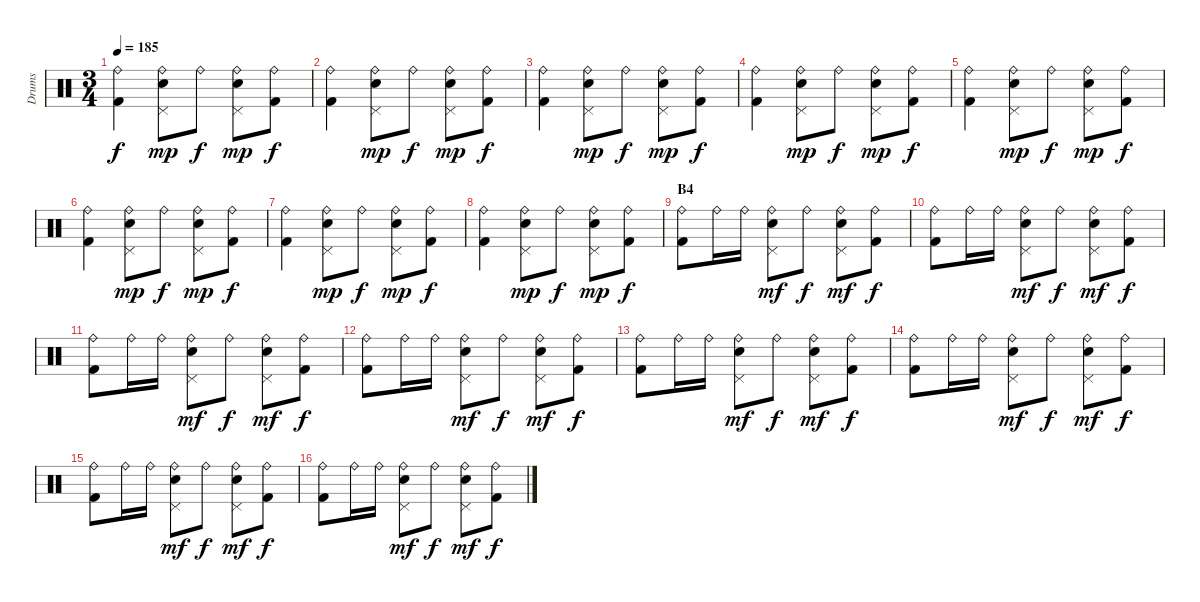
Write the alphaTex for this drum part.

\track ("Drums" "Drums") {instrument percussion}
\staff {score}
\articulation defaults
\ts (3 4)
\tempo 185
\clef neutral
\ks c
("Ride (bell)" "Kick (hit) 2").4{dy f} ("Ride (bell)" "Pedal Hi-Hat (hit)" "Electric Snare (hit)").8{dy mp} "Ride (bell)".8{dy f} ("Ride (bell)" "Pedal Hi-Hat (hit)" "Electric Snare (hit)").8{dy mp} ("Ride (bell)" "Kick (hit) 2").8{dy f} |
("Ride (bell)" "Kick (hit) 2").4 ("Ride (bell)" "Pedal Hi-Hat (hit)" "Electric Snare (hit)").8{dy mp} "Ride (bell)".8{dy f} ("Ride (bell)" "Pedal Hi-Hat (hit)" "Electric Snare (hit)").8{dy mp} ("Ride (bell)" "Kick (hit) 2").8{dy f} |
("Ride (bell)" "Kick (hit) 2").4 ("Ride (bell)" "Pedal Hi-Hat (hit)" "Electric Snare (hit)").8{dy mp} "Ride (bell)".8{dy f} ("Ride (bell)" "Pedal Hi-Hat (hit)" "Electric Snare (hit)").8{dy mp} ("Ride (bell)" "Kick (hit) 2").8{dy f} |
("Ride (bell)" "Kick (hit) 2").4 ("Ride (bell)" "Pedal Hi-Hat (hit)" "Electric Snare (hit)").8{dy mp} "Ride (bell)".8{dy f} ("Ride (bell)" "Pedal Hi-Hat (hit)" "Electric Snare (hit)").8{dy mp} ("Ride (bell)" "Kick (hit) 2").8{dy f} |
("Ride (bell)" "Kick (hit) 2").4 ("Ride (bell)" "Pedal Hi-Hat (hit)" "Electric Snare (hit)").8{dy mp} "Ride (bell)".8{dy f} ("Ride (bell)" "Pedal Hi-Hat (hit)" "Electric Snare (hit)").8{dy mp} ("Ride (bell)" "Kick (hit) 2").8{dy f} |
("Ride (bell)" "Kick (hit) 2").4 ("Ride (bell)" "Pedal Hi-Hat (hit)" "Electric Snare (hit)").8{dy mp} "Ride (bell)".8{dy f} ("Ride (bell)" "Pedal Hi-Hat (hit)" "Electric Snare (hit)").8{dy mp} ("Ride (bell)" "Kick (hit) 2").8{dy f} |
("Ride (bell)" "Kick (hit) 2").4 ("Ride (bell)" "Pedal Hi-Hat (hit)" "Electric Snare (hit)").8{dy mp} "Ride (bell)".8{dy f} ("Ride (bell)" "Pedal Hi-Hat (hit)" "Electric Snare (hit)").8{dy mp} ("Ride (bell)" "Kick (hit) 2").8{dy f} |
("Ride (bell)" "Kick (hit) 2").4 ("Ride (bell)" "Pedal Hi-Hat (hit)" "Electric Snare (hit)").8{dy mp} "Ride (bell)".8{dy f} ("Ride (bell)" "Pedal Hi-Hat (hit)" "Electric Snare (hit)").8{dy mp} ("Ride (bell)" "Kick (hit) 2").8{dy f} |
\section ("" "B4")
("Ride (bell)" "Kick (hit) 2").8 "Ride (bell)".16 "Ride (bell)".16 ("Ride (bell)" "Pedal Hi-Hat (hit)" "Electric Snare (hit)").8{dy mf} "Ride (bell)".8{dy f} ("Ride (bell)" "Pedal Hi-Hat (hit)" "Electric Snare (hit)").8{dy mf} ("Ride (bell)" "Kick (hit) 2").8{dy f} |
("Ride (bell)" "Kick (hit) 2").8 "Ride (bell)".16 "Ride (bell)".16 ("Ride (bell)" "Pedal Hi-Hat (hit)" "Electric Snare (hit)").8{dy mf} "Ride (bell)".8{dy f} ("Ride (bell)" "Pedal Hi-Hat (hit)" "Electric Snare (hit)").8{dy mf} ("Ride (bell)" "Kick (hit) 2").8{dy f} |
("Ride (bell)" "Kick (hit) 2").8 "Ride (bell)".16 "Ride (bell)".16 ("Ride (bell)" "Pedal Hi-Hat (hit)" "Electric Snare (hit)").8{dy mf} "Ride (bell)".8{dy f} ("Ride (bell)" "Pedal Hi-Hat (hit)" "Electric Snare (hit)").8{dy mf} ("Ride (bell)" "Kick (hit) 2").8{dy f} |
("Ride (bell)" "Kick (hit) 2").8 "Ride (bell)".16 "Ride (bell)".16 ("Ride (bell)" "Pedal Hi-Hat (hit)" "Electric Snare (hit)").8{dy mf} "Ride (bell)".8{dy f} ("Ride (bell)" "Pedal Hi-Hat (hit)" "Electric Snare (hit)").8{dy mf} ("Ride (bell)" "Kick (hit) 2").8{dy f} |
("Ride (bell)" "Kick (hit) 2").8 "Ride (bell)".16 "Ride (bell)".16 ("Ride (bell)" "Pedal Hi-Hat (hit)" "Electric Snare (hit)").8{dy mf} "Ride (bell)".8{dy f} ("Ride (bell)" "Pedal Hi-Hat (hit)" "Electric Snare (hit)").8{dy mf} ("Ride (bell)" "Kick (hit) 2").8{dy f} |
("Ride (bell)" "Kick (hit) 2").8 "Ride (bell)".16 "Ride (bell)".16 ("Ride (bell)" "Pedal Hi-Hat (hit)" "Electric Snare (hit)").8{dy mf} "Ride (bell)".8{dy f} ("Ride (bell)" "Pedal Hi-Hat (hit)" "Electric Snare (hit)").8{dy mf} ("Ride (bell)" "Kick (hit) 2").8{dy f} |
("Ride (bell)" "Kick (hit) 2").8 "Ride (bell)".16 "Ride (bell)".16 ("Ride (bell)" "Pedal Hi-Hat (hit)" "Electric Snare (hit)").8{dy mf} "Ride (bell)".8{dy f} ("Ride (bell)" "Pedal Hi-Hat (hit)" "Electric Snare (hit)").8{dy mf} ("Ride (bell)" "Kick (hit) 2").8{dy f} |
("Ride (bell)" "Kick (hit) 2").8 "Ride (bell)".16 "Ride (bell)".16 ("Ride (bell)" "Pedal Hi-Hat (hit)" "Electric Snare (hit)").8{dy mf} "Ride (bell)".8{dy f} ("Ride (bell)" "Pedal Hi-Hat (hit)" "Electric Snare (hit)").8{dy mf} ("Ride (bell)" "Kick (hit) 2").8{dy f}
